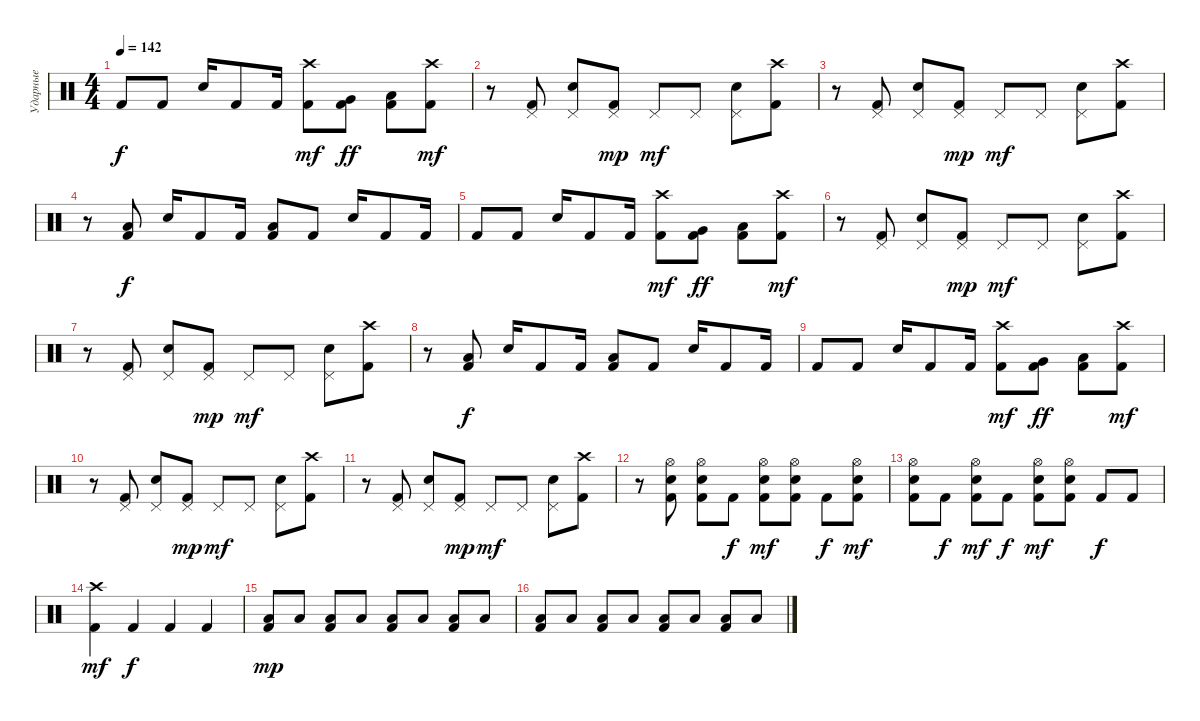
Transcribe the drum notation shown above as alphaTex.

\track ("Ударные" "Ударные") {instrument percussion}
\staff {score}
\articulation defaults
\ts (4 4)
\tempo 142
\clef neutral
\ks c "Kick (hit) 2".8{dy f} "Kick (hit) 2".8 "Electric Snare (hit)".16 "Kick (hit) 2".8 "Kick (hit) 2".16
("Kick (hit) 2" "Crash high (hit)").8{dy mf} ("Kick (hit) 2" "Very Low Tom (hit)").8{dy ff} ("Kick (hit) 2" "Low Floor Tom (hit)").8 ("Kick (hit) 2" "Crash high (hit)").8{dy mf} |
r.8 ("Kick (hit) 2" "Pedal Hi-Hat (hit)").8 ("Electric Snare (hit)" "Pedal Hi-Hat (hit)").8 ("Kick (hit) 2" "Pedal Hi-Hat (hit)").8{dy mp} "Pedal Hi-Hat (hit)".8{dy mf} "Pedal Hi-Hat (hit)".8 ("Electric Snare (hit)" "Pedal Hi-Hat (hit)").8 ("Kick (hit) 2" "Crash high (hit)").8 |
r.8 ("Kick (hit) 2" "Pedal Hi-Hat (hit)").8 ("Electric Snare (hit)" "Pedal Hi-Hat (hit)").8 ("Kick (hit) 2" "Pedal Hi-Hat (hit)").8{dy mp} "Pedal Hi-Hat (hit)".8{dy mf} "Pedal Hi-Hat (hit)".8 ("Electric Snare (hit)" "Pedal Hi-Hat (hit)").8 ("Kick (hit) 2" "Crash high (hit)").8 |
r.8 ("Kick (hit) 2" "Low Floor Tom (hit)").8{dy f} "Electric Snare (hit)".16 "Kick (hit) 2".8 "Kick (hit) 2".16 ("Kick (hit) 2" "Low Floor Tom (hit)").8 "Kick (hit) 2".8 "Electric Snare (hit)".16 "Kick (hit) 2".8 "Kick (hit) 2".16 |
"Kick (hit) 2".8 "Kick (hit) 2".8 "Electric Snare (hit)".16 "Kick (hit) 2".8 "Kick (hit) 2".16 ("Kick (hit) 2" "Crash high (hit)").8{dy mf} ("Kick (hit) 2" "Very Low Tom (hit)").8{dy ff} ("Kick (hit) 2" "Low Floor Tom (hit)").8 ("Kick (hit) 2" "Crash high (hit)").8{dy mf} |
r.8 ("Kick (hit) 2" "Pedal Hi-Hat (hit)").8 ("Electric Snare (hit)" "Pedal Hi-Hat (hit)").8 ("Kick (hit) 2" "Pedal Hi-Hat (hit)").8{dy mp} "Pedal Hi-Hat (hit)".8{dy mf} "Pedal Hi-Hat (hit)".8 ("Electric Snare (hit)" "Pedal Hi-Hat (hit)").8 ("Kick (hit) 2" "Crash high (hit)").8 |
r.8 ("Kick (hit) 2" "Pedal Hi-Hat (hit)").8 ("Electric Snare (hit)" "Pedal Hi-Hat (hit)").8 ("Kick (hit) 2" "Pedal Hi-Hat (hit)").8{dy mp} "Pedal Hi-Hat (hit)".8{dy mf} "Pedal Hi-Hat (hit)".8 ("Electric Snare (hit)" "Pedal Hi-Hat (hit)").8 ("Kick (hit) 2" "Crash high (hit)").8 |
r.8 ("Kick (hit) 2" "Low Floor Tom (hit)").8{dy f} "Electric Snare (hit)".16 "Kick (hit) 2".8 "Kick (hit) 2".16 ("Kick (hit) 2" "Low Floor Tom (hit)").8 "Kick (hit) 2".8 "Electric Snare (hit)".16 "Kick (hit) 2".8 "Kick (hit) 2".16 |
"Kick (hit) 2".8 "Kick (hit) 2".8 "Electric Snare (hit)".16 "Kick (hit) 2".8 "Kick (hit) 2".16 ("Kick (hit) 2" "Crash high (hit)").8{dy mf} ("Kick (hit) 2" "Very Low Tom (hit)").8{dy ff} ("Kick (hit) 2" "Low Floor Tom (hit)").8 ("Kick (hit) 2" "Crash high (hit)").8{dy mf} |
r.8 ("Kick (hit) 2" "Pedal Hi-Hat (hit)").8 ("Electric Snare (hit)" "Pedal Hi-Hat (hit)").8 ("Kick (hit) 2" "Pedal Hi-Hat (hit)").8{dy mp} "Pedal Hi-Hat (hit)".8{dy mf} "Pedal Hi-Hat (hit)".8 ("Electric Snare (hit)" "Pedal Hi-Hat (hit)").8 ("Kick (hit) 2" "Crash high (hit)").8 |
r.8 ("Kick (hit) 2" "Pedal Hi-Hat (hit)").8 ("Electric Snare (hit)" "Pedal Hi-Hat (hit)").8 ("Kick (hit) 2" "Pedal Hi-Hat (hit)").8{dy mp} "Pedal Hi-Hat (hit)".8{dy mf} "Pedal Hi-Hat (hit)".8 ("Electric Snare (hit)" "Pedal Hi-Hat (hit)").8 ("Kick (hit) 2" "Crash high (hit)").8 |
r.8 ("Kick (hit) 2" "Electric Snare (hit)" "Hi-Hat (open)").8 ("Kick (hit) 2" "Electric Snare (hit)" "Hi-Hat (open)").8 "Kick (hit) 2".8{dy f} ("Kick (hit) 2" "Electric Snare (hit)" "Hi-Hat (open)").8{dy mf} ("Kick (hit) 2" "Electric Snare (hit)" "Hi-Hat (open)").8 "Kick (hit) 2".8{dy f} ("Kick (hit) 2" "Electric Snare (hit)" "Hi-Hat (open)").8{dy mf} |
("Kick (hit) 2" "Electric Snare (hit)" "Hi-Hat (open)").8 "Kick (hit) 2".8{dy f} ("Kick (hit) 2" "Electric Snare (hit)" "Hi-Hat (open)").8{dy mf} "Kick (hit) 2".8{dy f} ("Kick (hit) 2" "Electric Snare (hit)" "Hi-Hat (open)").8{dy mf} ("Kick (hit) 2" "Electric Snare (hit)" "Hi-Hat (open)").8 "Kick (hit) 2".8{dy f} "Kick (hit) 2".8 |
("Kick (hit) 2" "Crash high (hit)").4{dy mf} "Kick (hit) 2".4{dy f} "Kick (hit) 2".4 "Kick (hit) 2".4 |
("Kick (hit) 2" "Low Floor Tom (hit)").8{dy mp} "Low Floor Tom (hit)".8 ("Kick (hit) 2" "Low Floor Tom (hit)").8 "Low Floor Tom (hit)".8 ("Kick (hit) 2" "Low Floor Tom (hit)").8 "Low Floor Tom (hit)".8 ("Kick (hit) 2" "Low Floor Tom (hit)").8 "Low Floor Tom (hit)".8 |
("Kick (hit) 2" "Low Floor Tom (hit)").8 "Low Floor Tom (hit)".8 ("Kick (hit) 2" "Low Floor Tom (hit)").8 "Low Floor Tom (hit)".8 ("Kick (hit) 2" "Low Floor Tom (hit)").8 "Low Floor Tom (hit)".8 ("Kick (hit) 2" "Low Floor Tom (hit)").8 "Low Floor Tom (hit)".8
